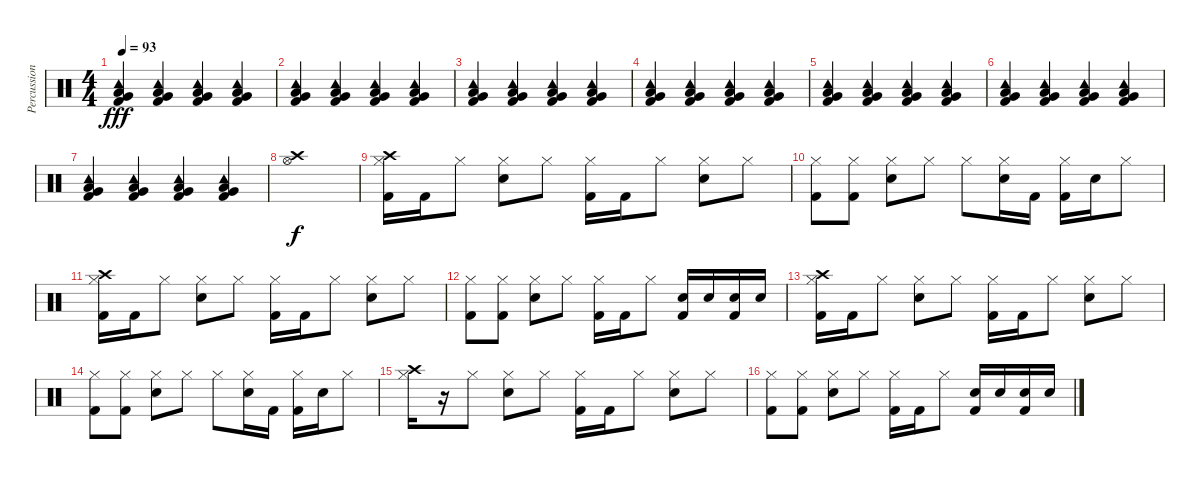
\track ("Percussion" "Percussion") {instrument percussion}
\staff {score}
\articulation defaults
\ts (4 4)
\tempo 93
\clef neutral
\ks c
("Tambourine (hit)" "Low Floor Tom (hit)" "Very Low Tom (hit)" "Kick (hit) 2").4{dy fff} ("Tambourine (hit)" "Low Floor Tom (hit)" "Very Low Tom (hit)" "Kick (hit) 2").4 ("Tambourine (hit)" "Low Floor Tom (hit)" "Very Low Tom (hit)" "Kick (hit) 2").4 ("Tambourine (hit)" "Low Floor Tom (hit)" "Very Low Tom (hit)" "Kick (hit) 2").4 |
("Tambourine (hit)" "Low Floor Tom (hit)" "Very Low Tom (hit)" "Kick (hit) 2").4 ("Tambourine (hit)" "Low Floor Tom (hit)" "Very Low Tom (hit)" "Kick (hit) 2").4 ("Tambourine (hit)" "Low Floor Tom (hit)" "Very Low Tom (hit)" "Kick (hit) 2").4 ("Tambourine (hit)" "Low Floor Tom (hit)" "Very Low Tom (hit)" "Kick (hit) 2").4 |
("Tambourine (hit)" "Low Floor Tom (hit)" "Very Low Tom (hit)" "Kick (hit) 2").4 ("Tambourine (hit)" "Low Floor Tom (hit)" "Very Low Tom (hit)" "Kick (hit) 2").4 ("Tambourine (hit)" "Low Floor Tom (hit)" "Very Low Tom (hit)" "Kick (hit) 2").4 ("Tambourine (hit)" "Low Floor Tom (hit)" "Very Low Tom (hit)" "Kick (hit) 2").4 |
("Tambourine (hit)" "Low Floor Tom (hit)" "Very Low Tom (hit)" "Kick (hit) 2").4 ("Tambourine (hit)" "Low Floor Tom (hit)" "Very Low Tom (hit)" "Kick (hit) 2").4 ("Tambourine (hit)" "Low Floor Tom (hit)" "Very Low Tom (hit)" "Kick (hit) 2").4 ("Tambourine (hit)" "Low Floor Tom (hit)" "Very Low Tom (hit)" "Kick (hit) 2").4 |
("Tambourine (hit)" "Low Floor Tom (hit)" "Very Low Tom (hit)" "Kick (hit) 2").4 ("Tambourine (hit)" "Low Floor Tom (hit)" "Very Low Tom (hit)" "Kick (hit) 2").4 ("Tambourine (hit)" "Low Floor Tom (hit)" "Very Low Tom (hit)" "Kick (hit) 2").4 ("Tambourine (hit)" "Low Floor Tom (hit)" "Very Low Tom (hit)" "Kick (hit) 2").4 |
("Tambourine (hit)" "Low Floor Tom (hit)" "Very Low Tom (hit)" "Kick (hit) 2").4 ("Tambourine (hit)" "Low Floor Tom (hit)" "Very Low Tom (hit)" "Kick (hit) 2").4 ("Tambourine (hit)" "Low Floor Tom (hit)" "Very Low Tom (hit)" "Kick (hit) 2").4 ("Tambourine (hit)" "Low Floor Tom (hit)" "Very Low Tom (hit)" "Kick (hit) 2").4 |
("Tambourine (hit)" "Low Floor Tom (hit)" "Very Low Tom (hit)" "Kick (hit) 2").4 ("Tambourine (hit)" "Low Floor Tom (hit)" "Very Low Tom (hit)" "Kick (hit) 2").4 ("Tambourine (hit)" "Low Floor Tom (hit)" "Very Low Tom (hit)" "Kick (hit) 2").4 ("Tambourine (hit)" "Low Floor Tom (hit)" "Very Low Tom (hit)" "Kick (hit) 2").4 |
("Crash high (hit)" "Hi-Hat (open)").1{dy f} |
("Crash high (hit)" "Hi-Hat (closed)" "Kick (hit) 2").16 "Kick (hit) 2".16 "Hi-Hat (closed)".8 ("Hi-Hat (closed)" "Electric Snare (hit)").8 "Hi-Hat (closed)".8 ("Hi-Hat (closed)" "Kick (hit) 2").16 "Kick (hit) 2".16 "Hi-Hat (closed)".8 ("Hi-Hat (closed)" "Electric Snare (hit)").8 "Hi-Hat (closed)".8 |
("Hi-Hat (closed)" "Kick (hit) 2").8 ("Hi-Hat (closed)" "Kick (hit) 2").8 ("Hi-Hat (closed)" "Electric Snare (hit)").8 "Hi-Hat (closed)".8 "Hi-Hat (closed)".8 ("Hi-Hat (closed)" "Electric Snare (hit)").16 "Kick (hit) 2".16 ("Hi-Hat (closed)" "Kick (hit) 2").16 "Electric Snare (hit)".16 "Hi-Hat (closed)".8 |
("Crash high (hit)" "Hi-Hat (closed)" "Kick (hit) 2").16 "Kick (hit) 2".16 "Hi-Hat (closed)".8 ("Hi-Hat (closed)" "Electric Snare (hit)").8 "Hi-Hat (closed)".8 ("Hi-Hat (closed)" "Kick (hit) 2").16 "Kick (hit) 2".16 "Hi-Hat (closed)".8 ("Hi-Hat (closed)" "Electric Snare (hit)").8 "Hi-Hat (closed)".8 |
("Hi-Hat (closed)" "Kick (hit) 2").8 ("Hi-Hat (closed)" "Kick (hit) 2").8 ("Hi-Hat (closed)" "Electric Snare (hit)").8 "Hi-Hat (closed)".8 ("Hi-Hat (closed)" "Kick (hit) 2").16 "Kick (hit) 2".16 "Hi-Hat (closed)".8 ("Electric Snare (hit)" "Kick (hit) 2").16 "Electric Snare (hit)".16 ("Electric Snare (hit)" "Kick (hit) 2").16 "Electric Snare (hit)".16 |
("Crash high (hit)" "Hi-Hat (closed)" "Kick (hit) 2").16 "Kick (hit) 2".16 "Hi-Hat (closed)".8 ("Hi-Hat (closed)" "Electric Snare (hit)").8 "Hi-Hat (closed)".8 ("Hi-Hat (closed)" "Kick (hit) 2").16 "Kick (hit) 2".16 "Hi-Hat (closed)".8 ("Hi-Hat (closed)" "Electric Snare (hit)").8 "Hi-Hat (closed)".8 |
("Hi-Hat (closed)" "Kick (hit) 2").8 ("Hi-Hat (closed)" "Kick (hit) 2").8 ("Hi-Hat (closed)" "Electric Snare (hit)").8 "Hi-Hat (closed)".8 "Hi-Hat (closed)".8 ("Hi-Hat (closed)" "Electric Snare (hit)").16 "Kick (hit) 2".16 ("Hi-Hat (closed)" "Kick (hit) 2").16 "Electric Snare (hit)".16 "Hi-Hat (closed)".8 |
("Crash high (hit)" "Hi-Hat (closed)").16 r.16 "Hi-Hat (closed)".8 ("Hi-Hat (closed)" "Electric Snare (hit)").8 "Hi-Hat (closed)".8 ("Hi-Hat (closed)" "Kick (hit) 2").16 "Kick (hit) 2".16 "Hi-Hat (closed)".8 ("Hi-Hat (closed)" "Electric Snare (hit)").8 "Hi-Hat (closed)".8 |
("Hi-Hat (closed)" "Kick (hit) 2").8 ("Hi-Hat (closed)" "Kick (hit) 2").8 ("Hi-Hat (closed)" "Electric Snare (hit)").8 "Hi-Hat (closed)".8 ("Hi-Hat (closed)" "Kick (hit) 2").16 "Kick (hit) 2".16 "Hi-Hat (closed)".8 ("Electric Snare (hit)" "Kick (hit) 2").16 "Electric Snare (hit)".16 ("Electric Snare (hit)" "Kick (hit) 2").16 "Electric Snare (hit)".16
